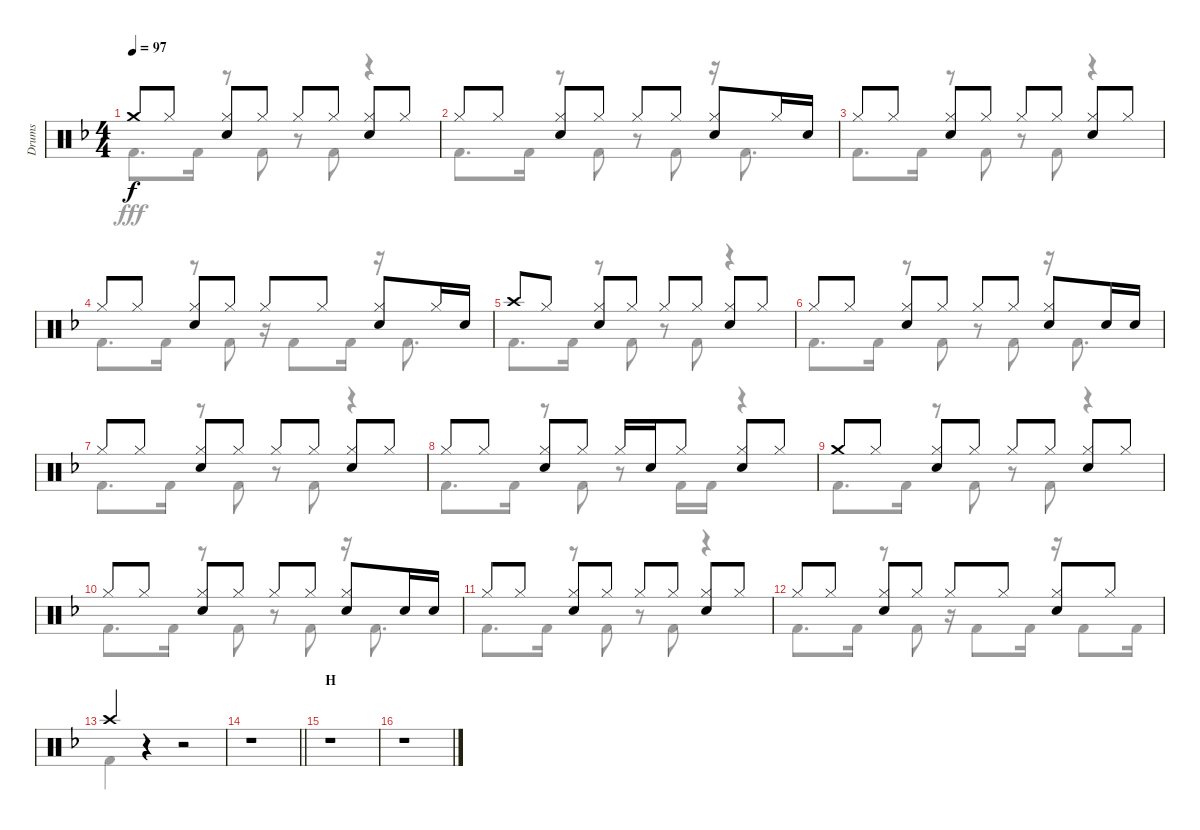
\track ("Drums" "Drums") {instrument percussion}
\staff {score}
\articulation defaults
\voice
\ts (4 4)
\tempo 97
\clef neutral
\ks f "Crash medium (hit)".8{dy f} "Hi-Hat (closed)".8
("Hi-Hat (closed)" "Snare (hit) 2").8 "Hi-Hat (closed)".8 "Hi-Hat (closed)".8 "Hi-Hat (closed)".8 ("Hi-Hat (closed)" "Snare (hit) 2").8 "Hi-Hat (closed)".8 |
"Hi-Hat (closed)".8 "Hi-Hat (closed)".8 ("Hi-Hat (closed)" "Snare (hit) 2").8 "Hi-Hat (closed)".8 "Hi-Hat (closed)".8 "Hi-Hat (closed)".8 ("Hi-Hat (closed)" "Snare (hit) 2").8 "Hi-Hat (closed)".16 "Snare (hit) 2".16 |
"Hi-Hat (closed)".8 "Hi-Hat (closed)".8 ("Hi-Hat (closed)" "Snare (hit) 2").8 "Hi-Hat (closed)".8 "Hi-Hat (closed)".8 "Hi-Hat (closed)".8 ("Hi-Hat (closed)" "Snare (hit) 2").8 "Hi-Hat (closed)".8 |
"Hi-Hat (closed)".8 "Hi-Hat (closed)".8 ("Hi-Hat (closed)" "Snare (hit) 2").8 "Hi-Hat (closed)".8 "Hi-Hat (closed)".8 "Hi-Hat (closed)".8 ("Hi-Hat (closed)" "Snare (hit) 2").8 "Hi-Hat (closed)".16 "Snare (hit) 2".16 |
"Crash high (hit)".8 "Hi-Hat (closed)".8 ("Hi-Hat (closed)" "Snare (hit) 2").8 "Hi-Hat (closed)".8 "Hi-Hat (closed)".8 "Hi-Hat (closed)".8 ("Hi-Hat (closed)" "Snare (hit) 2").8 "Hi-Hat (closed)".8 |
"Hi-Hat (closed)".8 "Hi-Hat (closed)".8 ("Hi-Hat (closed)" "Snare (hit) 2").8 "Hi-Hat (closed)".8 "Hi-Hat (closed)".8 "Hi-Hat (closed)".8 ("Hi-Hat (closed)" "Snare (hit) 2").8 "Snare (hit) 2".16 "Snare (hit) 2".16 |
"Hi-Hat (closed)".8 "Hi-Hat (closed)".8 ("Hi-Hat (closed)" "Snare (hit) 2").8 "Hi-Hat (closed)".8 "Hi-Hat (closed)".8 "Hi-Hat (closed)".8 ("Hi-Hat (closed)" "Snare (hit) 2").8 "Hi-Hat (closed)".8 |
"Hi-Hat (closed)".8 "Hi-Hat (closed)".8 ("Hi-Hat (closed)" "Snare (hit) 2").8 "Hi-Hat (closed)".8 "Hi-Hat (closed)".16 "Snare (hit) 2".16 "Hi-Hat (closed)".8 ("Hi-Hat (closed)" "Snare (hit) 2").8 "Hi-Hat (closed)".8 |
"Crash medium (hit)".8 "Hi-Hat (closed)".8 ("Hi-Hat (closed)" "Snare (hit) 2").8 "Hi-Hat (closed)".8 "Hi-Hat (closed)".8 "Hi-Hat (closed)".8 ("Hi-Hat (closed)" "Snare (hit) 2").8 "Hi-Hat (closed)".8 |
"Hi-Hat (closed)".8 "Hi-Hat (closed)".8 ("Hi-Hat (closed)" "Snare (hit) 2").8 "Hi-Hat (closed)".8 "Hi-Hat (closed)".8 "Hi-Hat (closed)".8 ("Hi-Hat (closed)" "Snare (hit) 2").8 "Snare (hit) 2".16 "Snare (hit) 2".16 |
"Hi-Hat (closed)".8 "Hi-Hat (closed)".8 ("Hi-Hat (closed)" "Snare (hit) 2").8 "Hi-Hat (closed)".8 "Hi-Hat (closed)".8 "Hi-Hat (closed)".8 ("Hi-Hat (closed)" "Snare (hit) 2").8 "Hi-Hat (closed)".8 |
"Hi-Hat (closed)".8 "Hi-Hat (closed)".8 ("Hi-Hat (closed)" "Snare (hit) 2").8 "Hi-Hat (closed)".8 "Hi-Hat (closed)".8 "Hi-Hat (closed)".8 ("Hi-Hat (closed)" "Snare (hit) 2").8 "Hi-Hat (closed)".8 |
"Crash high (hit)".4 r.4 r.2 |
\barLineRight lightlight
r.1 |
\section ("" "H")
r.1 |
r.1
\voice
\clef neutral
\ottava regular
\simile none
\ks f "Kick (hit) 2".8{d dy fff} "Kick (hit) 2".16
r.8 "Kick (hit) 2".8 r.8 "Kick (hit) 2".8 r.4 |
"Kick (hit) 2".8{d} "Kick (hit) 2".16 r.8 "Kick (hit) 2".8 r.8 "Kick (hit) 2".8 r.16 "Kick (hit) 2".8{d} |
"Kick (hit) 2".8{d} "Kick (hit) 2".16 r.8 "Kick (hit) 2".8 r.8 "Kick (hit) 2".8 r.4 |
"Kick (hit) 2".8{d} "Kick (hit) 2".16 r.8 "Kick (hit) 2".8 r.16 "Kick (hit) 2".8 "Kick (hit) 2".16 r.16 "Kick (hit) 2".8{d} |
"Kick (hit) 2".8{d} "Kick (hit) 2".16 r.8 "Kick (hit) 2".8 r.8 "Kick (hit) 2".8 r.4 |
"Kick (hit) 2".8{d} "Kick (hit) 2".16 r.8 "Kick (hit) 2".8 r.8 "Kick (hit) 2".8 r.16 "Kick (hit) 2".8{d} |
"Kick (hit) 2".8{d} "Kick (hit) 2".16 r.8 "Kick (hit) 2".8 r.8 "Kick (hit) 2".8 r.4 |
"Kick (hit) 2".8{d} "Kick (hit) 2".16 r.8 "Kick (hit) 2".8 r.8 "Kick (hit) 2".16 "Kick (hit) 2".16 r.4 |
"Kick (hit) 2".8{d} "Kick (hit) 2".16 r.8 "Kick (hit) 2".8 r.8 "Kick (hit) 2".8 r.4 |
"Kick (hit) 2".8{d} "Kick (hit) 2".16 r.8 "Kick (hit) 2".8 r.8 "Kick (hit) 2".8 r.16 "Kick (hit) 2".8{d} |
"Kick (hit) 2".8{d} "Kick (hit) 2".16 r.8 "Kick (hit) 2".8 r.8 "Kick (hit) 2".8 r.4 |
"Kick (hit) 2".8{d} "Kick (hit) 2".16 r.8 "Kick (hit) 2".8 r.16 "Kick (hit) 2".8 "Kick (hit) 2".16 r.16 "Kick (hit) 2".8 "Kick (hit) 2".16 |
"Kick (hit) 2".4 r.4 r.2 |
\barLineRight lightlight
r.1 |
r.1 |
r.1
